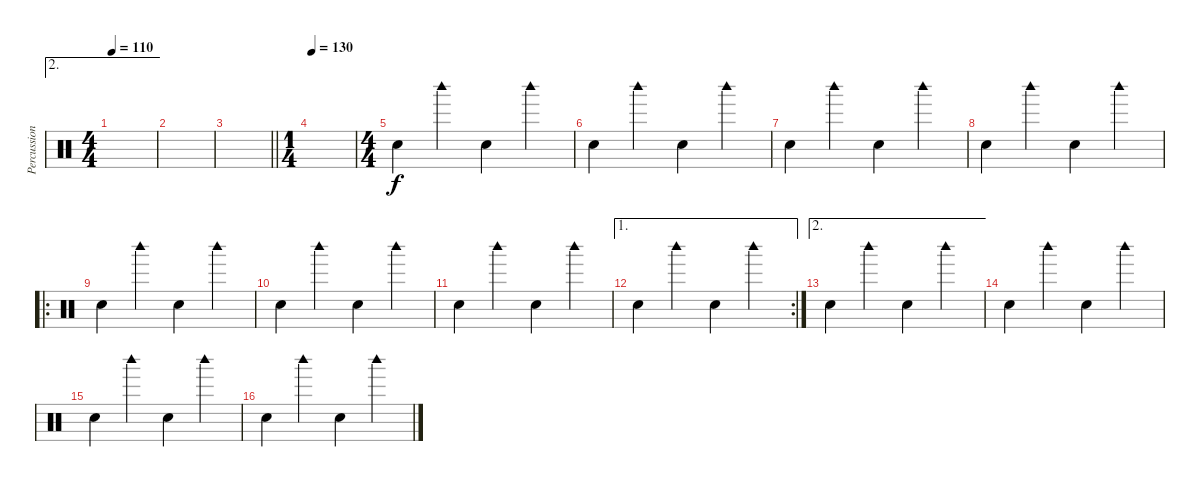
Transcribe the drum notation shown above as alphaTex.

\track ("Percussions" "Percussion") {instrument percussion}
\staff {score}
\articulation defaults
\ae 2
\ts (4 4)
\tempo 110
\clef neutral
\ks c
|
|
\barLineRight lightlight
|
\ts (1 4)
\tempo 130
|
\ts (4 4)
"Hand Clap (hit)".4 "Woodblock high (hit)".4 "Hand Clap (hit)".4 "Woodblock high (hit)".4 |
"Hand Clap (hit)".4 "Woodblock high (hit)".4 "Hand Clap (hit)".4 "Woodblock high (hit)".4 |
"Hand Clap (hit)".4 "Woodblock high (hit)".4 "Hand Clap (hit)".4 "Woodblock high (hit)".4 |
"Hand Clap (hit)".4 "Woodblock high (hit)".4 "Hand Clap (hit)".4 "Woodblock high (hit)".4 |
\ro "Hand Clap (hit)".4 "Woodblock high (hit)".4 "Hand Clap (hit)".4 "Woodblock high (hit)".4
|
"Hand Clap (hit)".4 "Woodblock high (hit)".4 "Hand Clap (hit)".4 "Woodblock high (hit)".4 |
"Hand Clap (hit)".4 "Woodblock high (hit)".4 "Hand Clap (hit)".4 "Woodblock high (hit)".4 |
\ae 1
\rc 2 "Hand Clap (hit)".4 "Woodblock high (hit)".4 "Hand Clap (hit)".4 "Woodblock high (hit)".4
|
\ae 2 "Hand Clap (hit)".4 "Woodblock high (hit)".4 "Hand Clap (hit)".4 "Woodblock high (hit)".4
|
"Hand Clap (hit)".4 "Woodblock high (hit)".4 "Hand Clap (hit)".4 "Woodblock high (hit)".4 |
"Hand Clap (hit)".4 "Woodblock high (hit)".4 "Hand Clap (hit)".4 "Woodblock high (hit)".4 |
"Hand Clap (hit)".4 "Woodblock high (hit)".4 "Hand Clap (hit)".4 "Woodblock high (hit)".4
